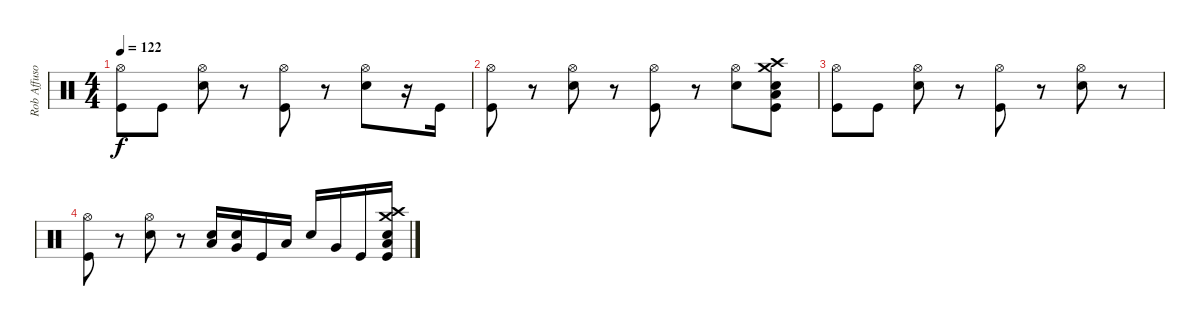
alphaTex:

\track ("Rob Affuso - Drums" "Rob Affuso") {instrument percussion}
\staff {score}
\articulation defaults
\ts (4 4)
\tempo 122
\clef neutral
\ks c
("Hi-Hat (open)" "Kick (hit)").8{dy f} "Kick (hit)".8 ("Hi-Hat (open)" "Snare (hit) 2").8 r.8 ("Hi-Hat (open)" "Kick (hit)").8 r.8 ("Hi-Hat (open)" "Snare (hit) 2").8 r.16 "Kick (hit)".16 |
("Hi-Hat (open)" "Kick (hit)").8 r.8 ("Hi-Hat (open)" "Snare (hit) 2").8 r.8 ("Hi-Hat (open)" "Kick (hit)").8 r.8 ("Hi-Hat (open)" "Snare (hit) 2").8 ("Crash medium (hit)" "Crash high (hit)" "Snare (hit) 2" "Low Floor Tom (hit)" "Kick (hit)").8 |
("Hi-Hat (open)" "Kick (hit)").8 "Kick (hit)".8 ("Hi-Hat (open)" "Snare (hit) 2").8 r.8 ("Hi-Hat (open)" "Kick (hit)").8 r.8 ("Hi-Hat (open)" "Snare (hit) 2").8 r.8 |
("Hi-Hat (open)" "Kick (hit)").8 r.8 ("Hi-Hat (open)" "Snare (hit) 2").8 r.8 ("Low Tom (hit)" "Snare (hit) 2").16 ("Very Low Tom (hit)" "Snare (hit) 2").16 "Kick (hit)".16 "Low Tom (hit)".16 "Snare (hit) 2".16 "Very Low Tom (hit)".16 "Kick (hit)".16 ("Crash medium (hit)" "Crash high (hit)" "Snare (hit) 2" "Low Floor Tom (hit)" "Kick (hit)").16
